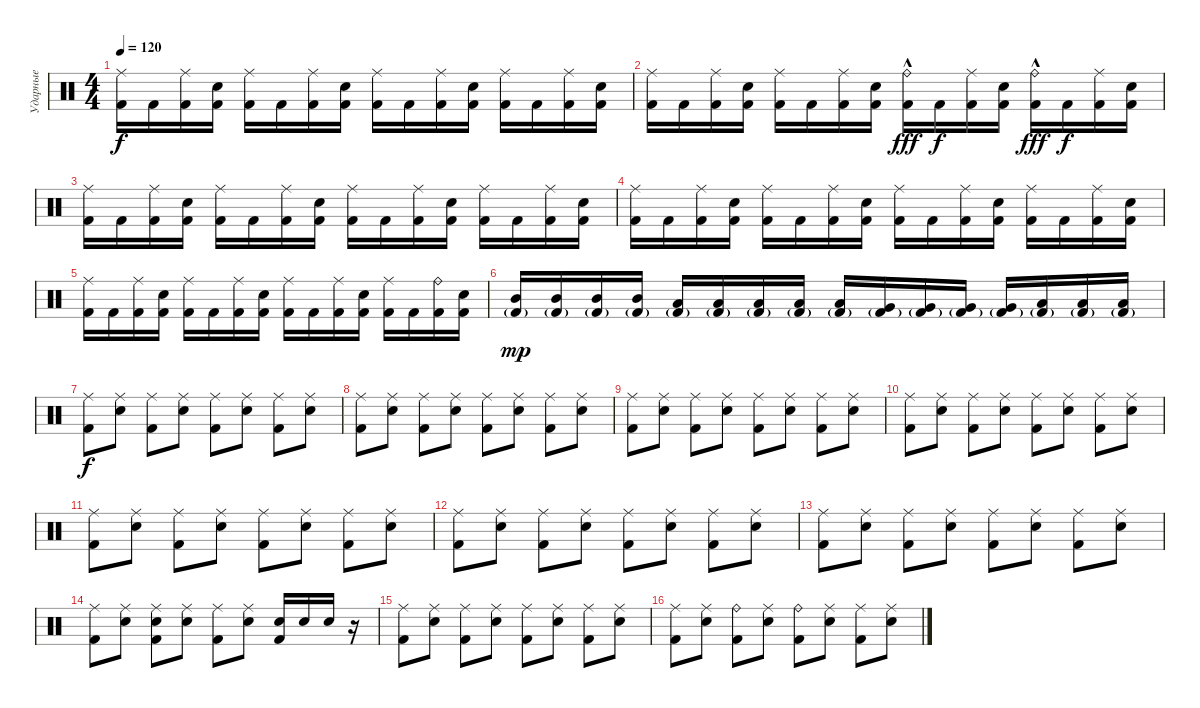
\track ("Ударные" "Ударные") {instrument percussion}
\staff {score}
\articulation defaults
\ts (4 4)
\tempo 120
\clef neutral
\ks c
("Kick (hit) 2" "Ride (middle)").16{dy f} "Kick (hit) 2".16 ("Kick (hit) 2" "Ride (middle)").16 ("Electric Snare (hit)" "Kick (hit) 2").16 ("Kick (hit) 2" "Ride (middle)").16 "Kick (hit) 2".16 ("Kick (hit) 2" "Ride (middle)").16 ("Electric Snare (hit)" "Kick (hit) 2").16 ("Kick (hit) 2" "Ride (middle)").16 "Kick (hit) 2".16 ("Kick (hit) 2" "Ride (middle)").16 ("Electric Snare (hit)" "Kick (hit) 2").16 ("Kick (hit) 2" "Ride (middle)").16 "Kick (hit) 2".16 ("Kick (hit) 2" "Ride (middle)").16 ("Electric Snare (hit)" "Kick (hit) 2").16 |
("Kick (hit) 2" "Ride (middle)").16 "Kick (hit) 2".16 ("Kick (hit) 2" "Ride (middle)").16 ("Electric Snare (hit)" "Kick (hit) 2").16 ("Kick (hit) 2" "Ride (middle)").16 "Kick (hit) 2".16 ("Kick (hit) 2" "Ride (middle)").16 ("Electric Snare (hit)" "Kick (hit) 2").16 ("Kick (hit) 2" "Ride (bell)"{hac}).16{dy fff} "Kick (hit) 2".16{dy f} ("Kick (hit) 2" "Ride (middle)").16 ("Electric Snare (hit)" "Kick (hit) 2").16 ("Kick (hit) 2" "Ride (bell)"{hac}).16{dy fff} "Kick (hit) 2".16{dy f} ("Kick (hit) 2" "Ride (middle)").16 ("Electric Snare (hit)" "Kick (hit) 2").16 |
("Kick (hit) 2" "Ride (middle)").16 "Kick (hit) 2".16 ("Kick (hit) 2" "Ride (middle)").16 ("Electric Snare (hit)" "Kick (hit) 2").16 ("Kick (hit) 2" "Ride (middle)").16 "Kick (hit) 2".16 ("Kick (hit) 2" "Ride (middle)").16 ("Electric Snare (hit)" "Kick (hit) 2").16 ("Kick (hit) 2" "Ride (middle)").16 "Kick (hit) 2".16 ("Kick (hit) 2" "Ride (middle)").16 ("Electric Snare (hit)" "Kick (hit) 2").16 ("Kick (hit) 2" "Ride (middle)").16 "Kick (hit) 2".16 ("Kick (hit) 2" "Ride (middle)").16 ("Electric Snare (hit)" "Kick (hit) 2").16 |
("Kick (hit) 2" "Ride (middle)").16 "Kick (hit) 2".16 ("Kick (hit) 2" "Ride (middle)").16 ("Electric Snare (hit)" "Kick (hit) 2").16 ("Kick (hit) 2" "Ride (middle)").16 "Kick (hit) 2".16 ("Kick (hit) 2" "Ride (middle)").16 ("Electric Snare (hit)" "Kick (hit) 2").16 ("Kick (hit) 2" "Ride (middle)").16 "Kick (hit) 2".16 ("Kick (hit) 2" "Ride (middle)").16 ("Electric Snare (hit)" "Kick (hit) 2").16 ("Kick (hit) 2" "Ride (middle)").16 "Kick (hit) 2".16 ("Kick (hit) 2" "Ride (middle)").16 ("Electric Snare (hit)" "Kick (hit) 2").16 |
("Kick (hit) 2" "Ride (middle)").16 "Kick (hit) 2".16 ("Kick (hit) 2" "Ride (middle)").16 ("Electric Snare (hit)" "Kick (hit) 2").16 ("Kick (hit) 2" "Ride (middle)").16 "Kick (hit) 2".16 ("Kick (hit) 2" "Ride (middle)").16 ("Electric Snare (hit)" "Kick (hit) 2").16 ("Kick (hit) 2" "Ride (middle)").16 "Kick (hit) 2".16 ("Kick (hit) 2" "Ride (middle)").16 ("Electric Snare (hit)" "Kick (hit) 2").16 ("Kick (hit) 2" "Ride (middle)").16 "Kick (hit) 2".16 ("Kick (hit) 2" "Ride (bell)").16 ("Electric Snare (hit)" "Kick (hit) 2").16 |
("Mid Tom (hit)" "Kick (hit) 2"{g}).16{dy mp} ("Mid Tom (hit)" "Kick (hit) 2"{g}).16 ("Mid Tom (hit)" "Kick (hit) 2"{g}).16 ("Mid Tom (hit)" "Kick (hit) 2"{g}).16 ("Low Tom (hit)" "Kick (hit) 2"{g}).16 ("Low Tom (hit)" "Kick (hit) 2"{g}).16 ("Low Tom (hit)" "Kick (hit) 2"{g}).16 ("Low Tom (hit)" "Kick (hit) 2"{g}).16 ("Low Tom (hit)" "Kick (hit) 2"{g}).16 ("Very Low Tom (hit)" "Kick (hit) 2"{g}).16 ("Very Low Tom (hit)" "Kick (hit) 2"{g}).16 ("Very Low Tom (hit)" "Kick (hit) 2"{g}).16 ("Very Low Tom (hit)" "Kick (hit) 2"{g}).16 ("Low Floor Tom (hit)" "Kick (hit) 2"{g}).16 ("Low Floor Tom (hit)" "Kick (hit) 2"{g}).16 ("Low Floor Tom (hit)" "Kick (hit) 2"{g}).16 |
("Kick (hit) 2" "Ride (middle)").8{dy f} ("Electric Snare (hit)" "Ride (middle)").8 ("Kick (hit) 2" "Ride (middle)").8 ("Electric Snare (hit)" "Ride (middle)").8 ("Kick (hit) 2" "Ride (middle)").8 ("Electric Snare (hit)" "Ride (middle)").8 ("Kick (hit) 2" "Ride (middle)").8 ("Electric Snare (hit)" "Ride (middle)").8 |
("Kick (hit) 2" "Ride (middle)").8 ("Electric Snare (hit)" "Ride (middle)").8 ("Kick (hit) 2" "Ride (middle)").8 ("Electric Snare (hit)" "Ride (middle)").8 ("Kick (hit) 2" "Ride (middle)").8 ("Electric Snare (hit)" "Ride (middle)").8 ("Kick (hit) 2" "Ride (middle)").8 ("Electric Snare (hit)" "Ride (middle)").8 |
("Kick (hit) 2" "Ride (middle)").8 ("Electric Snare (hit)" "Ride (middle)").8 ("Kick (hit) 2" "Ride (middle)").8 ("Electric Snare (hit)" "Ride (middle)").8 ("Kick (hit) 2" "Ride (middle)").8 ("Electric Snare (hit)" "Ride (middle)").8 ("Kick (hit) 2" "Ride (middle)").8 ("Electric Snare (hit)" "Ride (middle)").8 |
("Kick (hit) 2" "Ride (middle)").8 ("Electric Snare (hit)" "Ride (middle)").8 ("Kick (hit) 2" "Ride (middle)").8 ("Electric Snare (hit)" "Ride (middle)").8 ("Kick (hit) 2" "Ride (middle)").8 ("Electric Snare (hit)" "Ride (middle)").8 ("Kick (hit) 2" "Ride (middle)").8 ("Electric Snare (hit)" "Ride (middle)").8 |
("Kick (hit) 2" "Ride (middle)").8 ("Electric Snare (hit)" "Ride (middle)").8 ("Kick (hit) 2" "Ride (middle)").8 ("Electric Snare (hit)" "Ride (middle)").8 ("Kick (hit) 2" "Ride (middle)").8 ("Electric Snare (hit)" "Ride (middle)").8 ("Kick (hit) 2" "Ride (middle)").8 ("Electric Snare (hit)" "Ride (middle)").8 |
("Kick (hit) 2" "Ride (middle)").8 ("Electric Snare (hit)" "Ride (middle)").8 ("Kick (hit) 2" "Ride (middle)").8 ("Electric Snare (hit)" "Ride (middle)").8 ("Kick (hit) 2" "Ride (middle)").8 ("Electric Snare (hit)" "Ride (middle)").8 ("Kick (hit) 2" "Ride (middle)").8 ("Electric Snare (hit)" "Ride (middle)").8 |
("Kick (hit) 2" "Ride (middle)").8 ("Electric Snare (hit)" "Ride (middle)").8 ("Kick (hit) 2" "Ride (middle)").8 ("Electric Snare (hit)" "Ride (middle)").8 ("Kick (hit) 2" "Ride (middle)").8 ("Electric Snare (hit)" "Ride (middle)").8 ("Kick (hit) 2" "Ride (middle)").8 ("Electric Snare (hit)" "Ride (middle)").8 |
("Kick (hit) 2" "Ride (middle)").8 ("Electric Snare (hit)" "Ride (middle)").8 ("Electric Snare (hit)" "Kick (hit) 2" "Ride (middle)").8 ("Electric Snare (hit)" "Ride (middle)").8 ("Kick (hit) 2" "Ride (middle)").8 ("Electric Snare (hit)" "Ride (middle)").8 ("Electric Snare (hit)" "Kick (hit) 2").16 "Electric Snare (hit)".16 "Electric Snare (hit)".16 r.16 |
("Kick (hit) 2" "Ride (middle)").8 ("Electric Snare (hit)" "Ride (middle)").8 ("Kick (hit) 2" "Ride (middle)").8 ("Electric Snare (hit)" "Ride (middle)").8 ("Kick (hit) 2" "Ride (middle)").8 ("Electric Snare (hit)" "Ride (middle)").8 ("Kick (hit) 2" "Ride (middle)").8 ("Electric Snare (hit)" "Ride (middle)").8 |
("Kick (hit) 2" "Ride (middle)").8 ("Electric Snare (hit)" "Ride (middle)").8 ("Kick (hit) 2" "Ride (bell)").8 ("Electric Snare (hit)" "Ride (middle)").8 ("Kick (hit) 2" "Ride (bell)").8 ("Electric Snare (hit)" "Ride (middle)").8 ("Kick (hit) 2" "Ride (middle)").8 ("Electric Snare (hit)" "Ride (middle)").8
